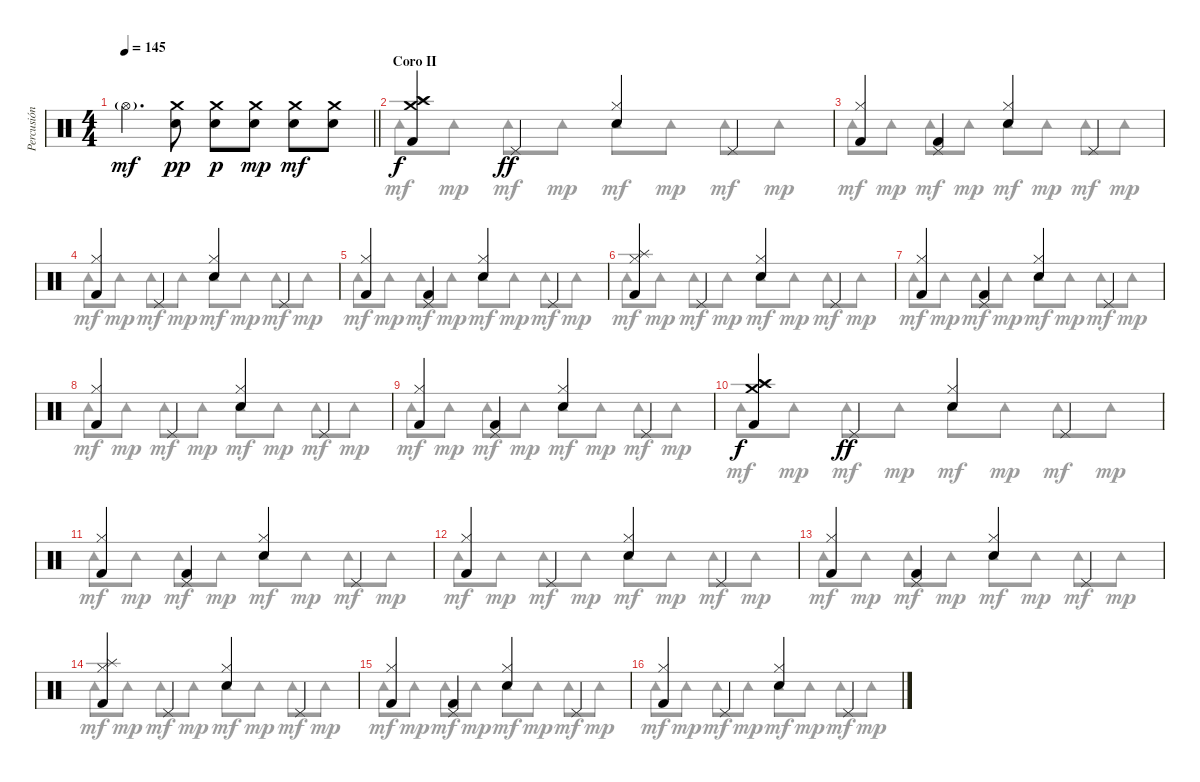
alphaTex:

\track ("Percusión" "Percusión") {instrument percussion}
\staff {score}
\articulation defaults
\voice
\ts (4 4)
\tempo 145
\clef neutral
\barLineRight lightlight
\ks c "Hi-Hat (open)"{g}.4{d dy mf}
("Crash medium (hit)" "Electric Snare (hit)").8{dy pp} ("Crash medium (hit)" "Electric Snare (hit)").8{dy p} ("Crash medium (hit)" "Electric Snare (hit)").8{dy mp} ("Crash medium (hit)" "Electric Snare (hit)").8{dy mf} ("Crash medium (hit)" "Electric Snare (hit)").8 |
\section ("" "Coro II")
("Crash medium (hit)" "Crash high (hit)" "Splash (hit)" "Kick (hit) 2").4{dy f} "Pedal Hi-Hat (hit)".4{dy ff} ("Hi-Hat (closed)" "Electric Snare (hit)").4 "Pedal Hi-Hat (hit)".4 |
("Hi-Hat (closed)" "Kick (hit) 2").4 ("Pedal Hi-Hat (hit)" "Kick (hit) 2").4 ("Hi-Hat (closed)" "Electric Snare (hit)").4 "Pedal Hi-Hat (hit)".4 |
("Hi-Hat (closed)" "Kick (hit) 2").4 "Pedal Hi-Hat (hit)".4 ("Hi-Hat (closed)" "Electric Snare (hit)").4 "Pedal Hi-Hat (hit)".4 |
("Hi-Hat (closed)" "Kick (hit) 2").4 ("Pedal Hi-Hat (hit)" "Kick (hit) 2").4 ("Hi-Hat (closed)" "Electric Snare (hit)").4 "Pedal Hi-Hat (hit)".4 |
("Hi-Hat (closed)" "Splash (hit)" "Kick (hit) 2").4 "Pedal Hi-Hat (hit)".4 ("Hi-Hat (closed)" "Electric Snare (hit)").4 "Pedal Hi-Hat (hit)".4 |
("Hi-Hat (closed)" "Kick (hit) 2").4 ("Pedal Hi-Hat (hit)" "Kick (hit) 2").4 ("Hi-Hat (closed)" "Electric Snare (hit)").4 "Pedal Hi-Hat (hit)".4 |
("Hi-Hat (closed)" "Kick (hit) 2").4 "Pedal Hi-Hat (hit)".4 ("Hi-Hat (closed)" "Electric Snare (hit)").4 "Pedal Hi-Hat (hit)".4 |
("Hi-Hat (closed)" "Kick (hit) 2").4 ("Pedal Hi-Hat (hit)" "Kick (hit) 2").4 ("Hi-Hat (closed)" "Electric Snare (hit)").4 "Pedal Hi-Hat (hit)".4 |
("Crash medium (hit)" "Crash high (hit)" "Splash (hit)" "Kick (hit) 2").4{dy f} "Pedal Hi-Hat (hit)".4{dy ff} ("Hi-Hat (closed)" "Electric Snare (hit)").4 "Pedal Hi-Hat (hit)".4 |
("Hi-Hat (closed)" "Kick (hit) 2").4 ("Pedal Hi-Hat (hit)" "Kick (hit) 2").4 ("Hi-Hat (closed)" "Electric Snare (hit)").4 "Pedal Hi-Hat (hit)".4 |
("Hi-Hat (closed)" "Kick (hit) 2").4 "Pedal Hi-Hat (hit)".4 ("Hi-Hat (closed)" "Electric Snare (hit)").4 "Pedal Hi-Hat (hit)".4 |
("Hi-Hat (closed)" "Kick (hit) 2").4 ("Pedal Hi-Hat (hit)" "Kick (hit) 2").4 ("Hi-Hat (closed)" "Electric Snare (hit)").4 "Pedal Hi-Hat (hit)".4 |
("Splash (hit)" "Hi-Hat (closed)" "Kick (hit) 2").4 "Pedal Hi-Hat (hit)".4 ("Hi-Hat (closed)" "Electric Snare (hit)").4 "Pedal Hi-Hat (hit)".4 |
("Hi-Hat (closed)" "Kick (hit) 2").4 ("Pedal Hi-Hat (hit)" "Kick (hit) 2").4 ("Hi-Hat (closed)" "Electric Snare (hit)").4 "Pedal Hi-Hat (hit)".4 |
("Hi-Hat (closed)" "Kick (hit) 2").4 "Pedal Hi-Hat (hit)".4 ("Hi-Hat (closed)" "Electric Snare (hit)").4 "Pedal Hi-Hat (hit)".4
\voice
\clef neutral
\ottava regular
\simile none
\barLineRight lightlight
\ks c
|
"Tambourine (hit)".8{dy mf} "Tambourine (hit)".8{dy mp} "Tambourine (hit)".8{dy mf} "Tambourine (hit)".8{dy mp} "Tambourine (hit)".8{dy mf} "Tambourine (hit)".8{dy mp} "Tambourine (hit)".8{dy mf} "Tambourine (hit)".8{dy mp} |
"Tambourine (hit)".8{dy mf} "Tambourine (hit)".8{dy mp} "Tambourine (hit)".8{dy mf} "Tambourine (hit)".8{dy mp} "Tambourine (hit)".8{dy mf} "Tambourine (hit)".8{dy mp} "Tambourine (hit)".8{dy mf} "Tambourine (hit)".8{dy mp} |
"Tambourine (hit)".8{dy mf} "Tambourine (hit)".8{dy mp} "Tambourine (hit)".8{dy mf} "Tambourine (hit)".8{dy mp} "Tambourine (hit)".8{dy mf} "Tambourine (hit)".8{dy mp} "Tambourine (hit)".8{dy mf} "Tambourine (hit)".8{dy mp} |
"Tambourine (hit)".8{dy mf} "Tambourine (hit)".8{dy mp} "Tambourine (hit)".8{dy mf} "Tambourine (hit)".8{dy mp} "Tambourine (hit)".8{dy mf} "Tambourine (hit)".8{dy mp} "Tambourine (hit)".8{dy mf} "Tambourine (hit)".8{dy mp} |
"Tambourine (hit)".8{dy mf} "Tambourine (hit)".8{dy mp} "Tambourine (hit)".8{dy mf} "Tambourine (hit)".8{dy mp} "Tambourine (hit)".8{dy mf} "Tambourine (hit)".8{dy mp} "Tambourine (hit)".8{dy mf} "Tambourine (hit)".8{dy mp} |
"Tambourine (hit)".8{dy mf} "Tambourine (hit)".8{dy mp} "Tambourine (hit)".8{dy mf} "Tambourine (hit)".8{dy mp} "Tambourine (hit)".8{dy mf} "Tambourine (hit)".8{dy mp} "Tambourine (hit)".8{dy mf} "Tambourine (hit)".8{dy mp} |
"Tambourine (hit)".8{dy mf} "Tambourine (hit)".8{dy mp} "Tambourine (hit)".8{dy mf} "Tambourine (hit)".8{dy mp} "Tambourine (hit)".8{dy mf} "Tambourine (hit)".8{dy mp} "Tambourine (hit)".8{dy mf} "Tambourine (hit)".8{dy mp} |
"Tambourine (hit)".8{dy mf} "Tambourine (hit)".8{dy mp} "Tambourine (hit)".8{dy mf} "Tambourine (hit)".8{dy mp} "Tambourine (hit)".8{dy mf} "Tambourine (hit)".8{dy mp} "Tambourine (hit)".8{dy mf} "Tambourine (hit)".8{dy mp} |
"Tambourine (hit)".8{dy mf} "Tambourine (hit)".8{dy mp} "Tambourine (hit)".8{dy mf} "Tambourine (hit)".8{dy mp} "Tambourine (hit)".8{dy mf} "Tambourine (hit)".8{dy mp} "Tambourine (hit)".8{dy mf} "Tambourine (hit)".8{dy mp} |
"Tambourine (hit)".8{dy mf} "Tambourine (hit)".8{dy mp} "Tambourine (hit)".8{dy mf} "Tambourine (hit)".8{dy mp} "Tambourine (hit)".8{dy mf} "Tambourine (hit)".8{dy mp} "Tambourine (hit)".8{dy mf} "Tambourine (hit)".8{dy mp} |
"Tambourine (hit)".8{dy mf} "Tambourine (hit)".8{dy mp} "Tambourine (hit)".8{dy mf} "Tambourine (hit)".8{dy mp} "Tambourine (hit)".8{dy mf} "Tambourine (hit)".8{dy mp} "Tambourine (hit)".8{dy mf} "Tambourine (hit)".8{dy mp} |
"Tambourine (hit)".8{dy mf} "Tambourine (hit)".8{dy mp} "Tambourine (hit)".8{dy mf} "Tambourine (hit)".8{dy mp} "Tambourine (hit)".8{dy mf} "Tambourine (hit)".8{dy mp} "Tambourine (hit)".8{dy mf} "Tambourine (hit)".8{dy mp} |
"Tambourine (hit)".8{dy mf} "Tambourine (hit)".8{dy mp} "Tambourine (hit)".8{dy mf} "Tambourine (hit)".8{dy mp} "Tambourine (hit)".8{dy mf} "Tambourine (hit)".8{dy mp} "Tambourine (hit)".8{dy mf} "Tambourine (hit)".8{dy mp} |
"Tambourine (hit)".8{dy mf} "Tambourine (hit)".8{dy mp} "Tambourine (hit)".8{dy mf} "Tambourine (hit)".8{dy mp} "Tambourine (hit)".8{dy mf} "Tambourine (hit)".8{dy mp} "Tambourine (hit)".8{dy mf} "Tambourine (hit)".8{dy mp} |
"Tambourine (hit)".8{dy mf} "Tambourine (hit)".8{dy mp} "Tambourine (hit)".8{dy mf} "Tambourine (hit)".8{dy mp} "Tambourine (hit)".8{dy mf} "Tambourine (hit)".8{dy mp} "Tambourine (hit)".8{dy mf} "Tambourine (hit)".8{dy mp}
